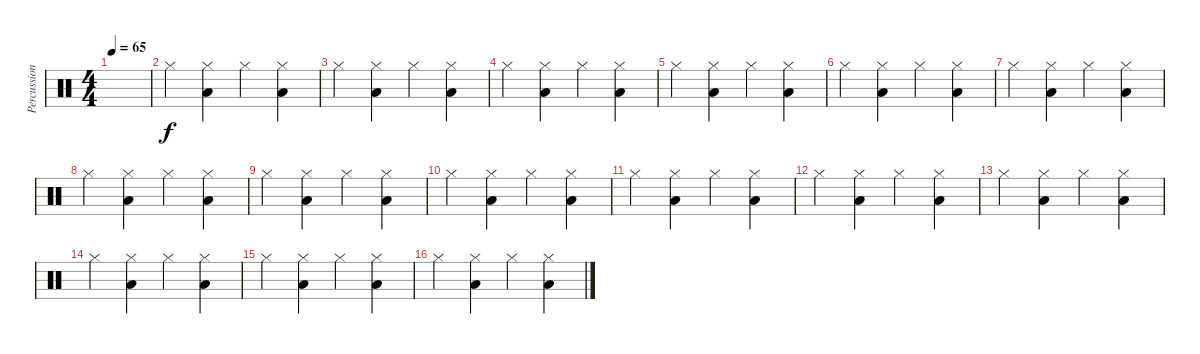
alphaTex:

\track ("Percussions" "Percussion") {instrument percussion}
\staff {score}
\articulation defaults
\ts (4 4)
\tempo 65
\clef neutral
\ks c
|
"Hi-Hat (closed)".4 ("Hi-Hat (closed)" "Low Floor Tom (hit)").4 "Hi-Hat (closed)".4 ("Hi-Hat (closed)" "Low Floor Tom (hit)").4 |
"Hi-Hat (closed)".4 ("Hi-Hat (closed)" "Low Floor Tom (hit)").4 "Hi-Hat (closed)".4 ("Hi-Hat (closed)" "Low Floor Tom (hit)").4 |
"Hi-Hat (closed)".4 ("Hi-Hat (closed)" "Low Floor Tom (hit)").4 "Hi-Hat (closed)".4 ("Hi-Hat (closed)" "Low Floor Tom (hit)").4 |
"Hi-Hat (closed)".4 ("Hi-Hat (closed)" "Low Floor Tom (hit)").4 "Hi-Hat (closed)".4 ("Hi-Hat (closed)" "Low Floor Tom (hit)").4 |
"Hi-Hat (closed)".4 ("Hi-Hat (closed)" "Low Floor Tom (hit)").4 "Hi-Hat (closed)".4 ("Hi-Hat (closed)" "Low Floor Tom (hit)").4 |
"Hi-Hat (closed)".4 ("Hi-Hat (closed)" "Low Floor Tom (hit)").4 "Hi-Hat (closed)".4 ("Hi-Hat (closed)" "Low Floor Tom (hit)").4 |
"Hi-Hat (closed)".4 ("Hi-Hat (closed)" "Low Floor Tom (hit)").4 "Hi-Hat (closed)".4 ("Hi-Hat (closed)" "Low Floor Tom (hit)").4 |
"Hi-Hat (closed)".4 ("Hi-Hat (closed)" "Low Floor Tom (hit)").4 "Hi-Hat (closed)".4 ("Hi-Hat (closed)" "Low Floor Tom (hit)").4 |
"Hi-Hat (closed)".4 ("Hi-Hat (closed)" "Low Floor Tom (hit)").4 "Hi-Hat (closed)".4 ("Hi-Hat (closed)" "Low Floor Tom (hit)").4 |
"Hi-Hat (closed)".4 ("Hi-Hat (closed)" "Low Floor Tom (hit)").4 "Hi-Hat (closed)".4 ("Hi-Hat (closed)" "Low Floor Tom (hit)").4 |
"Hi-Hat (closed)".4 ("Hi-Hat (closed)" "Low Floor Tom (hit)").4 "Hi-Hat (closed)".4 ("Hi-Hat (closed)" "Low Floor Tom (hit)").4 |
"Hi-Hat (closed)".4 ("Hi-Hat (closed)" "Low Floor Tom (hit)").4 "Hi-Hat (closed)".4 ("Hi-Hat (closed)" "Low Floor Tom (hit)").4 |
"Hi-Hat (closed)".4 ("Hi-Hat (closed)" "Low Floor Tom (hit)").4 "Hi-Hat (closed)".4 ("Hi-Hat (closed)" "Low Floor Tom (hit)").4 |
"Hi-Hat (closed)".4 ("Hi-Hat (closed)" "Low Floor Tom (hit)").4 "Hi-Hat (closed)".4 ("Hi-Hat (closed)" "Low Floor Tom (hit)").4 |
"Hi-Hat (closed)".4 ("Hi-Hat (closed)" "Low Floor Tom (hit)").4 "Hi-Hat (closed)".4 ("Hi-Hat (closed)" "Low Floor Tom (hit)").4
